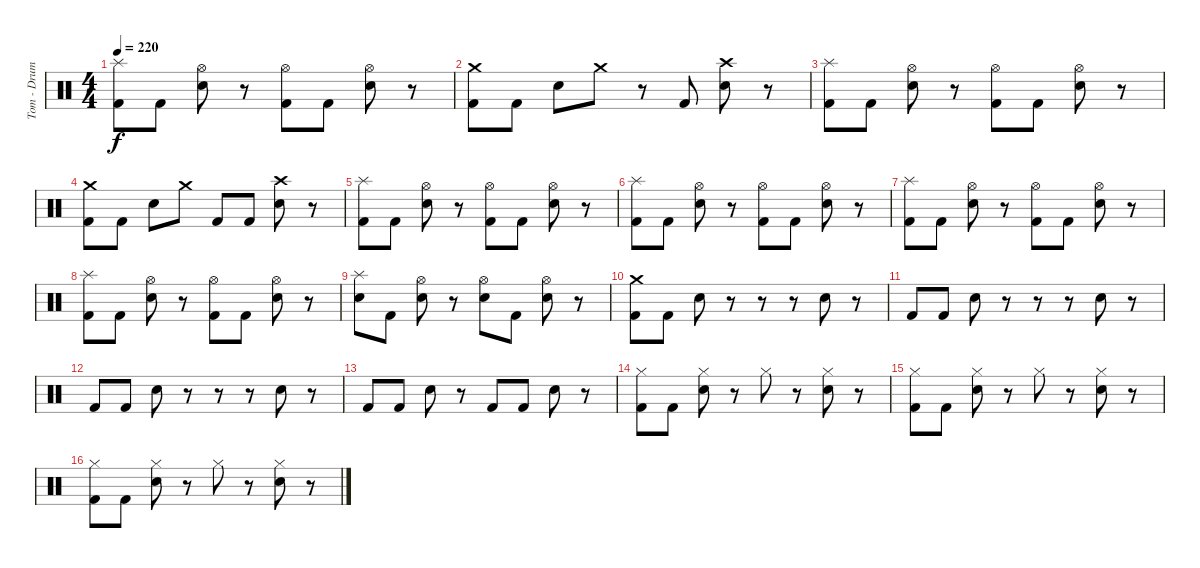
\track ("Tom - Drums" "Tom - Drum") {instrument percussion}
\staff {score}
\articulation defaults
\ts (4 4)
\tempo 220
\clef neutral
\ks c
("Splash (hit)" "Kick (hit) 2").8{dy f} "Kick (hit) 2".8 ("Hi-Hat (open)" "Electric Snare (hit)").8 r.8 ("Hi-Hat (open)" "Kick (hit) 2").8 "Kick (hit) 2".8 ("Hi-Hat (open)" "Electric Snare (hit)").8 r.8 |
("Crash medium (hit)" "Kick (hit) 2").8 "Kick (hit) 2".8 "Electric Snare (hit)".8 "Crash medium (hit)".8 r.8 "Kick (hit) 2".8 ("Crash high (hit)" "Electric Snare (hit)").8 r.8 |
("Splash (hit)" "Kick (hit) 2").8 "Kick (hit) 2".8 ("Hi-Hat (open)" "Electric Snare (hit)").8 r.8 ("Hi-Hat (open)" "Kick (hit) 2").8 "Kick (hit) 2".8 ("Hi-Hat (open)" "Electric Snare (hit)").8 r.8 |
("Crash medium (hit)" "Kick (hit) 2").8 "Kick (hit) 2".8 "Electric Snare (hit)".8 "Crash medium (hit)".8 "Kick (hit) 2".8 "Kick (hit) 2".8 ("Crash high (hit)" "Electric Snare (hit)").8 r.8 |
("Splash (hit)" "Kick (hit) 2").8 "Kick (hit) 2".8 ("Hi-Hat (open)" "Electric Snare (hit)").8 r.8 ("Hi-Hat (open)" "Kick (hit) 2").8 "Kick (hit) 2".8 ("Hi-Hat (open)" "Electric Snare (hit)").8 r.8 |
("Splash (hit)" "Kick (hit) 2").8 "Kick (hit) 2".8 ("Hi-Hat (open)" "Electric Snare (hit)").8 r.8 ("Hi-Hat (open)" "Kick (hit) 2").8 "Kick (hit) 2".8 ("Hi-Hat (open)" "Electric Snare (hit)").8 r.8 |
("Splash (hit)" "Kick (hit) 2").8 "Kick (hit) 2".8 ("Hi-Hat (open)" "Electric Snare (hit)").8 r.8 ("Hi-Hat (open)" "Kick (hit) 2").8 "Kick (hit) 2".8 ("Hi-Hat (open)" "Electric Snare (hit)").8 r.8 |
("Splash (hit)" "Kick (hit) 2").8 "Kick (hit) 2".8 ("Hi-Hat (open)" "Electric Snare (hit)").8 r.8 ("Hi-Hat (open)" "Kick (hit) 2").8 "Kick (hit) 2".8 ("Hi-Hat (open)" "Electric Snare (hit)").8 r.8 |
("Splash (hit)" "Electric Snare (hit)").8 "Kick (hit) 2".8 ("Hi-Hat (open)" "Electric Snare (hit)").8 r.8 ("Hi-Hat (open)" "Electric Snare (hit)").8 "Kick (hit) 2".8 ("Hi-Hat (open)" "Electric Snare (hit)").8 r.8 |
("Crash medium (hit)" "Kick (hit) 2").8 "Kick (hit) 2".8 "Electric Snare (hit)".8 r.8 r.8 r.8 "Electric Snare (hit)".8 r.8 |
"Kick (hit) 2".8 "Kick (hit) 2".8 "Electric Snare (hit)".8 r.8 r.8 r.8 "Electric Snare (hit)".8 r.8 |
"Kick (hit) 2".8 "Kick (hit) 2".8 "Electric Snare (hit)".8 r.8 r.8 r.8 "Electric Snare (hit)".8 r.8 |
"Kick (hit) 2".8 "Kick (hit) 2".8 "Electric Snare (hit)".8 r.8 "Kick (hit) 2".8 "Kick (hit) 2".8 "Electric Snare (hit)".8 r.8 |
("Hi-Hat (closed)" "Kick (hit) 2").8 "Kick (hit) 2".8 ("Hi-Hat (closed)" "Electric Snare (hit)").8 r.8 "Hi-Hat (closed)".8 r.8 ("Hi-Hat (closed)" "Electric Snare (hit)").8 r.8 |
("Hi-Hat (closed)" "Kick (hit) 2").8 "Kick (hit) 2".8 ("Hi-Hat (closed)" "Electric Snare (hit)").8 r.8 "Hi-Hat (closed)".8 r.8 ("Hi-Hat (closed)" "Electric Snare (hit)").8 r.8 |
("Hi-Hat (closed)" "Kick (hit) 2").8 "Kick (hit) 2".8 ("Hi-Hat (closed)" "Electric Snare (hit)").8 r.8 "Hi-Hat (closed)".8 r.8 ("Hi-Hat (closed)" "Electric Snare (hit)").8 r.8
